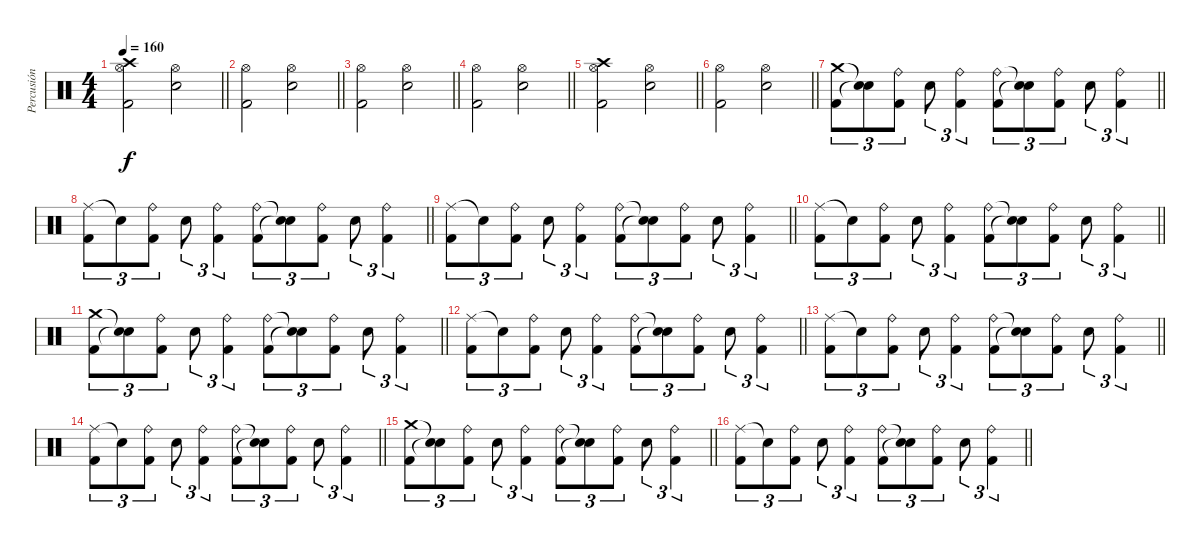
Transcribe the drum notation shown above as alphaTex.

\track ("Percusión" "Percusión") {instrument percussion}
\staff {score}
\articulation defaults
\ts (4 4)
\tempo 160
\clef neutral
\barLineRight lightlight
\ks c
("Kick (hit) 2" "Hi-Hat (open)" "Crash high (hit)").2{dy f} ("Snare (hit) 2" "Hi-Hat (open)").2 |
\barLineRight lightlight
("Kick (hit) 2" "Hi-Hat (open)").2 ("Snare (hit) 2" "Hi-Hat (open)").2 |
\barLineRight lightlight
("Kick (hit) 2" "Hi-Hat (open)").2 ("Snare (hit) 2" "Hi-Hat (open)").2 |
\barLineRight lightlight
("Kick (hit) 2" "Hi-Hat (open)").2 ("Snare (hit) 2" "Hi-Hat (open)").2 |
\barLineRight lightlight
("Kick (hit) 2" "Hi-Hat (open)" "Crash high (hit)").2 ("Snare (hit) 2" "Hi-Hat (open)").2 |
\barLineRight lightlight
("Kick (hit) 2" "Hi-Hat (open)").2 ("Snare (hit) 2" "Hi-Hat (open)").2 |
\barLineRight lightlight
("Crash medium (hit)" "Kick (hit) 2").8{tu (3 2)} ("Snare (hit)"{t} "Snare (hit)"{t}).8{tu (3 2)} ("Ride (bell)" "Kick (hit) 2").8{tu (3 2)} "Snare (hit) 2".8{tu (3 2)} ("Ride (bell)" "Kick (hit) 2").4{tu (3 2)} ("Ride (bell)" "Kick (hit) 2").8{tu (3 2)} ("Snare (hit)"{t} "Snare (hit)"{t}).8{tu (3 2)} ("Ride (bell)" "Kick (hit) 2").8{tu (3 2)} "Snare (hit) 2".8{tu (3 2)} ("Ride (bell)" "Kick (hit) 2").4{tu (3 2)} |
\barLineRight lightlight
("Ride (middle)" "Kick (hit) 2").8{tu (3 2)} "Snare (hit)"{t}.8{tu (3 2)} ("Ride (bell)" "Kick (hit) 2").8{tu (3 2)} "Snare (hit) 2".8{tu (3 2)} ("Ride (bell)" "Kick (hit) 2").4{tu (3 2)} ("Ride (bell)" "Kick (hit) 2").8{tu (3 2)} ("Snare (hit)"{t} "Snare (hit)"{t}).8{tu (3 2)} ("Ride (bell)" "Kick (hit) 2").8{tu (3 2)} "Snare (hit) 2".8{tu (3 2)} ("Ride (bell)" "Kick (hit) 2").4{tu (3 2)} |
\barLineRight lightlight
("Ride (middle)" "Kick (hit) 2").8{tu (3 2)} "Snare (hit)"{t}.8{tu (3 2)} ("Ride (bell)" "Kick (hit) 2").8{tu (3 2)} "Snare (hit) 2".8{tu (3 2)} ("Ride (bell)" "Kick (hit) 2").4{tu (3 2)} ("Ride (bell)" "Kick (hit) 2").8{tu (3 2)} ("Snare (hit)"{t} "Snare (hit)"{t}).8{tu (3 2)} ("Ride (bell)" "Kick (hit) 2").8{tu (3 2)} "Snare (hit) 2".8{tu (3 2)} ("Ride (bell)" "Kick (hit) 2").4{tu (3 2)} |
\barLineRight lightlight
("Ride (middle)" "Kick (hit) 2").8{tu (3 2)} "Snare (hit)"{t}.8{tu (3 2)} ("Ride (bell)" "Kick (hit) 2").8{tu (3 2)} "Snare (hit) 2".8{tu (3 2)} ("Ride (bell)" "Kick (hit) 2").4{tu (3 2)} ("Ride (bell)" "Kick (hit) 2").8{tu (3 2)} ("Snare (hit)"{t} "Snare (hit)"{t}).8{tu (3 2)} ("Ride (bell)" "Kick (hit) 2").8{tu (3 2)} "Snare (hit) 2".8{tu (3 2)} ("Ride (bell)" "Kick (hit) 2").4{tu (3 2)} |
\barLineRight lightlight
("Crash medium (hit)" "Kick (hit) 2").8{tu (3 2)} ("Snare (hit)"{t} "Snare (hit)"{t}).8{tu (3 2)} ("Ride (bell)" "Kick (hit) 2").8{tu (3 2)} "Snare (hit) 2".8{tu (3 2)} ("Ride (bell)" "Kick (hit) 2").4{tu (3 2)} ("Ride (bell)" "Kick (hit) 2").8{tu (3 2)} ("Snare (hit)"{t} "Snare (hit)"{t}).8{tu (3 2)} ("Ride (bell)" "Kick (hit) 2").8{tu (3 2)} "Snare (hit) 2".8{tu (3 2)} ("Ride (bell)" "Kick (hit) 2").4{tu (3 2)} |
\barLineRight lightlight
("Ride (middle)" "Kick (hit) 2").8{tu (3 2)} "Snare (hit)"{t}.8{tu (3 2)} ("Ride (bell)" "Kick (hit) 2").8{tu (3 2)} "Snare (hit) 2".8{tu (3 2)} ("Ride (bell)" "Kick (hit) 2").4{tu (3 2)} ("Ride (bell)" "Kick (hit) 2").8{tu (3 2)} ("Snare (hit)"{t} "Snare (hit)"{t}).8{tu (3 2)} ("Ride (bell)" "Kick (hit) 2").8{tu (3 2)} "Snare (hit) 2".8{tu (3 2)} ("Ride (bell)" "Kick (hit) 2").4{tu (3 2)} |
\barLineRight lightlight
("Ride (middle)" "Kick (hit) 2").8{tu (3 2)} "Snare (hit)"{t}.8{tu (3 2)} ("Ride (bell)" "Kick (hit) 2").8{tu (3 2)} "Snare (hit) 2".8{tu (3 2)} ("Ride (bell)" "Kick (hit) 2").4{tu (3 2)} ("Ride (bell)" "Kick (hit) 2").8{tu (3 2)} ("Snare (hit)"{t} "Snare (hit)"{t}).8{tu (3 2)} ("Ride (bell)" "Kick (hit) 2").8{tu (3 2)} "Snare (hit) 2".8{tu (3 2)} ("Ride (bell)" "Kick (hit) 2").4{tu (3 2)} |
\barLineRight lightlight
("Ride (middle)" "Kick (hit) 2").8{tu (3 2)} "Snare (hit)"{t}.8{tu (3 2)} ("Ride (bell)" "Kick (hit) 2").8{tu (3 2)} "Snare (hit) 2".8{tu (3 2)} ("Ride (bell)" "Kick (hit) 2").4{tu (3 2)} ("Ride (bell)" "Kick (hit) 2").8{tu (3 2)} ("Snare (hit)"{t} "Snare (hit)"{t}).8{tu (3 2)} ("Ride (bell)" "Kick (hit) 2").8{tu (3 2)} "Snare (hit) 2".8{tu (3 2)} ("Ride (bell)" "Kick (hit) 2").4{tu (3 2)} |
\barLineRight lightlight
("Crash medium (hit)" "Kick (hit) 2").8{tu (3 2)} ("Snare (hit)"{t} "Snare (hit)"{t}).8{tu (3 2)} ("Ride (bell)" "Kick (hit) 2").8{tu (3 2)} "Snare (hit) 2".8{tu (3 2)} ("Ride (bell)" "Kick (hit) 2").4{tu (3 2)} ("Ride (bell)" "Kick (hit) 2").8{tu (3 2)} ("Snare (hit)"{t} "Snare (hit)"{t}).8{tu (3 2)} ("Ride (bell)" "Kick (hit) 2").8{tu (3 2)} "Snare (hit) 2".8{tu (3 2)} ("Ride (bell)" "Kick (hit) 2").4{tu (3 2)} |
\barLineRight lightlight
("Ride (middle)" "Kick (hit) 2").8{tu (3 2)} "Snare (hit)"{t}.8{tu (3 2)} ("Ride (bell)" "Kick (hit) 2").8{tu (3 2)} "Snare (hit) 2".8{tu (3 2)} ("Ride (bell)" "Kick (hit) 2").4{tu (3 2)} ("Ride (bell)" "Kick (hit) 2").8{tu (3 2)} ("Snare (hit)"{t} "Snare (hit)"{t}).8{tu (3 2)} ("Ride (bell)" "Kick (hit) 2").8{tu (3 2)} "Snare (hit) 2".8{tu (3 2)} ("Ride (bell)" "Kick (hit) 2").4{tu (3 2)}
